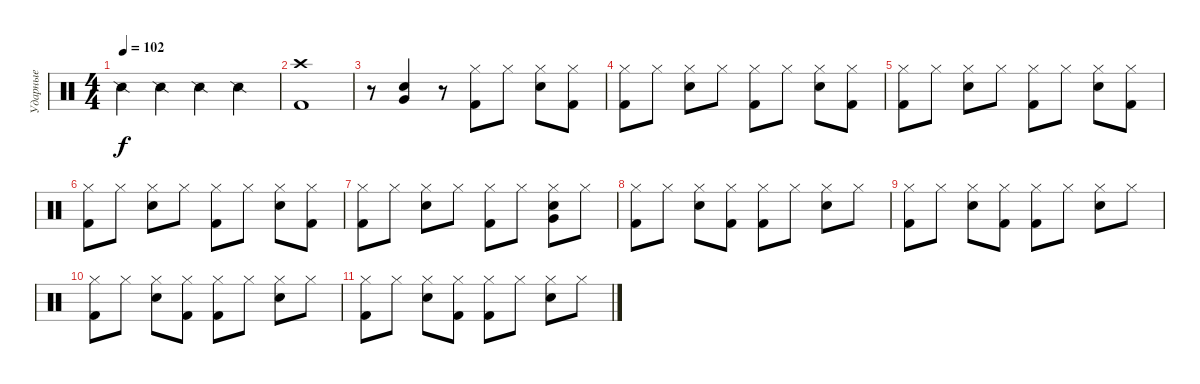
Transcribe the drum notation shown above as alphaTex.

\track ("Ударные" "Ударные") {instrument percussion}
\staff {score}
\articulation defaults
\ts (4 4)
\tempo 102
\clef neutral
\ks c "Snare (side stick) 2".4{dy f} "Snare (side stick) 2".4 "Snare (side stick) 2".4 "Snare (side stick) 2".4
|
("Kick (hit) 2" "Crash high (hit)").1 |
r.8 ("Very Low Tom (hit)" "Electric Snare (hit)").4 r.8 ("Hi-Hat (closed)" "Kick (hit) 2").8 "Hi-Hat (closed)".8 ("Hi-Hat (closed)" "Electric Snare (hit)").8 ("Hi-Hat (closed)" "Kick (hit) 2").8 |
("Hi-Hat (closed)" "Kick (hit) 2").8 "Hi-Hat (closed)".8 ("Hi-Hat (closed)" "Electric Snare (hit)").8 "Hi-Hat (closed)".8 ("Hi-Hat (closed)" "Kick (hit) 2").8 "Hi-Hat (closed)".8 ("Hi-Hat (closed)" "Electric Snare (hit)").8 ("Hi-Hat (closed)" "Kick (hit) 2").8 |
("Hi-Hat (closed)" "Kick (hit) 2").8 "Hi-Hat (closed)".8 ("Hi-Hat (closed)" "Electric Snare (hit)").8 "Hi-Hat (closed)".8 ("Hi-Hat (closed)" "Kick (hit) 2").8 "Hi-Hat (closed)".8 ("Hi-Hat (closed)" "Electric Snare (hit)").8 ("Hi-Hat (closed)" "Kick (hit) 2").8 |
("Hi-Hat (closed)" "Kick (hit) 2").8 "Hi-Hat (closed)".8 ("Hi-Hat (closed)" "Electric Snare (hit)").8 "Hi-Hat (closed)".8 ("Hi-Hat (closed)" "Kick (hit) 2").8 "Hi-Hat (closed)".8 ("Hi-Hat (closed)" "Electric Snare (hit)").8 ("Hi-Hat (closed)" "Kick (hit) 2").8 |
("Hi-Hat (closed)" "Kick (hit) 2").8 "Hi-Hat (closed)".8 ("Hi-Hat (closed)" "Electric Snare (hit)").8 "Hi-Hat (closed)".8 ("Hi-Hat (closed)" "Kick (hit) 2").8 "Hi-Hat (closed)".8 ("Hi-Hat (closed)" "Electric Snare (hit)" "Very Low Tom (hit)").8 "Hi-Hat (closed)".8 |
("Hi-Hat (closed)" "Kick (hit) 2").8 "Hi-Hat (closed)".8 ("Hi-Hat (closed)" "Electric Snare (hit)").8 ("Hi-Hat (closed)" "Kick (hit) 2").8 ("Hi-Hat (closed)" "Kick (hit) 2").8 "Hi-Hat (closed)".8 ("Hi-Hat (closed)" "Electric Snare (hit)").8 "Hi-Hat (closed)".8 |
("Hi-Hat (closed)" "Kick (hit) 2").8 "Hi-Hat (closed)".8 ("Hi-Hat (closed)" "Electric Snare (hit)").8 ("Hi-Hat (closed)" "Kick (hit) 2").8 ("Hi-Hat (closed)" "Kick (hit) 2").8 "Hi-Hat (closed)".8 ("Hi-Hat (closed)" "Electric Snare (hit)").8 "Hi-Hat (closed)".8 |
("Hi-Hat (closed)" "Kick (hit) 2").8 "Hi-Hat (closed)".8 ("Hi-Hat (closed)" "Electric Snare (hit)").8 ("Hi-Hat (closed)" "Kick (hit) 2").8 ("Hi-Hat (closed)" "Kick (hit) 2").8 "Hi-Hat (closed)".8 ("Hi-Hat (closed)" "Electric Snare (hit)").8 "Hi-Hat (closed)".8 |
("Hi-Hat (closed)" "Kick (hit) 2").8 "Hi-Hat (closed)".8 ("Hi-Hat (closed)" "Electric Snare (hit)").8 ("Hi-Hat (closed)" "Kick (hit) 2").8 ("Hi-Hat (closed)" "Kick (hit) 2").8 "Hi-Hat (closed)".8 ("Hi-Hat (closed)" "Electric Snare (hit)").8 "Hi-Hat (closed)".8
